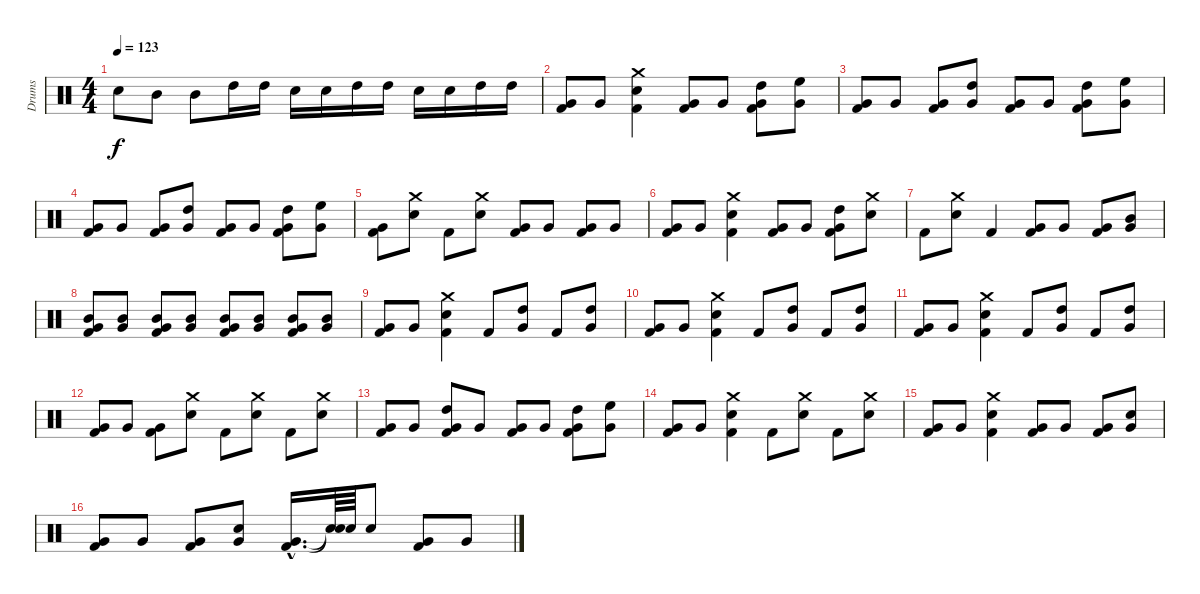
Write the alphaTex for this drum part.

\track ("Drums" "Drums") {instrument percussion}
\staff {score}
\articulation defaults
\ts (4 4)
\tempo 123
\clef neutral
\ks c "Snare (hit) 2".8{dy f} "Mid Tom (hit)".8 "Mid Tom (hit)".8 "High Tom (hit)".16 "High Tom (hit)".16 "Snare (hit) 2".16 "Snare (hit) 2".16 "High Tom (hit)".16 "High Tom (hit)".16 "Snare (hit) 2".16 "Snare (hit) 2".16 "High Tom (hit)".16 "High Tom (hit)".16
|
("Very Low Tom (hit)" "Kick (hit) 2").8 "Very Low Tom (hit)".8 ("Crash medium (hit)" "Snare (hit) 2" "Kick (hit) 2").4 ("Very Low Tom (hit)" "Kick (hit) 2").8 "Very Low Tom (hit)".8 ("High Tom (hit)" "Very Low Tom (hit)" "Kick (hit) 2").8 ("High Floor Tom (hit)" "Very Low Tom (hit)").8 |
("Very Low Tom (hit)" "Kick (hit) 2").8 "Very Low Tom (hit)".8 ("Very Low Tom (hit)" "Kick (hit) 2").8 ("High Tom (hit)" "Very Low Tom (hit)").8 ("Very Low Tom (hit)" "Kick (hit) 2").8 "Very Low Tom (hit)".8 ("High Tom (hit)" "Very Low Tom (hit)" "Kick (hit) 2").8 ("High Floor Tom (hit)" "Very Low Tom (hit)").8 |
("Very Low Tom (hit)" "Kick (hit) 2").8 "Very Low Tom (hit)".8 ("Very Low Tom (hit)" "Kick (hit) 2").8 ("High Tom (hit)" "Very Low Tom (hit)").8 ("Very Low Tom (hit)" "Kick (hit) 2").8 "Very Low Tom (hit)".8 ("High Tom (hit)" "Very Low Tom (hit)" "Kick (hit) 2").8 ("High Floor Tom (hit)" "Very Low Tom (hit)").8 |
("Very Low Tom (hit)" "Kick (hit) 2").8 ("Crash medium (hit)" "Snare (hit) 2").8 "Kick (hit) 2".8 ("Snare (hit) 2" "Crash medium (hit)").8 ("Very Low Tom (hit)" "Kick (hit) 2").8 "Very Low Tom (hit)".8 ("Very Low Tom (hit)" "Kick (hit) 2").8 "Very Low Tom (hit)".8 |
("Very Low Tom (hit)" "Kick (hit) 2").8 "Very Low Tom (hit)".8 ("Snare (hit) 2" "Crash medium (hit)" "Kick (hit) 2").4 ("Very Low Tom (hit)" "Kick (hit) 2").8 "Very Low Tom (hit)".8 ("High Tom (hit)" "Very Low Tom (hit)" "Kick (hit) 2").8 ("Crash medium (hit)" "Snare (hit) 2").8 |
"Kick (hit) 2".8 ("Snare (hit) 2" "Crash medium (hit)").8 "Kick (hit) 2".4 ("Very Low Tom (hit)" "Kick (hit) 2").8 "Very Low Tom (hit)".8 ("Very Low Tom (hit)" "Kick (hit) 2").8 ("Mid Tom (hit)" "Very Low Tom (hit)").8 |
("Mid Tom (hit)" "Very Low Tom (hit)" "Kick (hit) 2").8 ("Mid Tom (hit)" "Very Low Tom (hit)").8 ("Mid Tom (hit)" "Very Low Tom (hit)" "Kick (hit) 2").8 ("Mid Tom (hit)" "Very Low Tom (hit)").8 ("Mid Tom (hit)" "Very Low Tom (hit)" "Kick (hit) 2").8 ("Mid Tom (hit)" "Very Low Tom (hit)").8 ("Mid Tom (hit)" "Very Low Tom (hit)" "Kick (hit) 2").8 ("Mid Tom (hit)" "Very Low Tom (hit)").8 |
("Very Low Tom (hit)" "Kick (hit) 2").8 "Very Low Tom (hit)".8 ("Crash medium (hit)" "Snare (hit) 2" "Kick (hit) 2").4 "Kick (hit) 2".8 ("High Tom (hit)" "Very Low Tom (hit)").8 "Kick (hit) 2".8 ("High Tom (hit)" "Very Low Tom (hit)").8 |
("Very Low Tom (hit)" "Kick (hit) 2").8 "Very Low Tom (hit)".8 ("Crash medium (hit)" "Snare (hit) 2" "Kick (hit) 2").4 "Kick (hit) 2".8 ("High Tom (hit)" "Very Low Tom (hit)").8 "Kick (hit) 2".8 ("High Tom (hit)" "Very Low Tom (hit)").8 |
("Very Low Tom (hit)" "Kick (hit) 2").8 "Very Low Tom (hit)".8 ("Crash medium (hit)" "Snare (hit) 2" "Kick (hit) 2").4 "Kick (hit) 2".8 ("High Tom (hit)" "Very Low Tom (hit)").8 "Kick (hit) 2".8 ("High Tom (hit)" "Very Low Tom (hit)").8 |
("Very Low Tom (hit)" "Kick (hit) 2").8 "Very Low Tom (hit)".8 ("Very Low Tom (hit)" "Kick (hit) 2").8 ("Crash medium (hit)" "Snare (hit) 2").8 "Kick (hit) 2".8 ("Snare (hit) 2" "Crash medium (hit)").8 "Kick (hit) 2".8 ("Snare (hit) 2" "Crash medium (hit)").8 |
("Very Low Tom (hit)" "Kick (hit) 2").8 "Very Low Tom (hit)".8 ("High Tom (hit)" "Very Low Tom (hit)" "Kick (hit) 2").8 "Very Low Tom (hit)".8 ("Very Low Tom (hit)" "Kick (hit) 2").8 "Very Low Tom (hit)".8 ("High Tom (hit)" "Very Low Tom (hit)" "Kick (hit) 2").8 ("High Floor Tom (hit)" "Very Low Tom (hit)").8 |
("Very Low Tom (hit)" "Kick (hit) 2").8 "Very Low Tom (hit)".8 ("Snare (hit) 2" "Crash medium (hit)" "Kick (hit) 2").4 "Kick (hit) 2".8 ("Snare (hit) 2" "Crash medium (hit)").8 "Kick (hit) 2".8 ("Snare (hit) 2" "Crash medium (hit)").8 |
("Very Low Tom (hit)" "Kick (hit) 2").8 "Very Low Tom (hit)".8 ("Crash medium (hit)" "Snare (hit) 2" "Kick (hit) 2").4 ("Very Low Tom (hit)" "Kick (hit) 2").8 "Very Low Tom (hit)".8 ("Very Low Tom (hit)" "Kick (hit) 2").8 ("Snare (hit) 2" "Very Low Tom (hit)").8 |
("Very Low Tom (hit)" "Kick (hit) 2").8 "Very Low Tom (hit)".8 ("Very Low Tom (hit)" "Kick (hit) 2").8 ("Snare (hit) 2" "Very Low Tom (hit)").8 ("Very Low Tom (hit)"{hac} "Kick (hit) 2"{hac}).16{d} ("Snare (hit)"{t} "Snare (hit)"{t}).64 "Snare (hit) 2".64 "Snare (hit) 2".8 ("Very Low Tom (hit)" "Kick (hit) 2").8 "Very Low Tom (hit)".8
